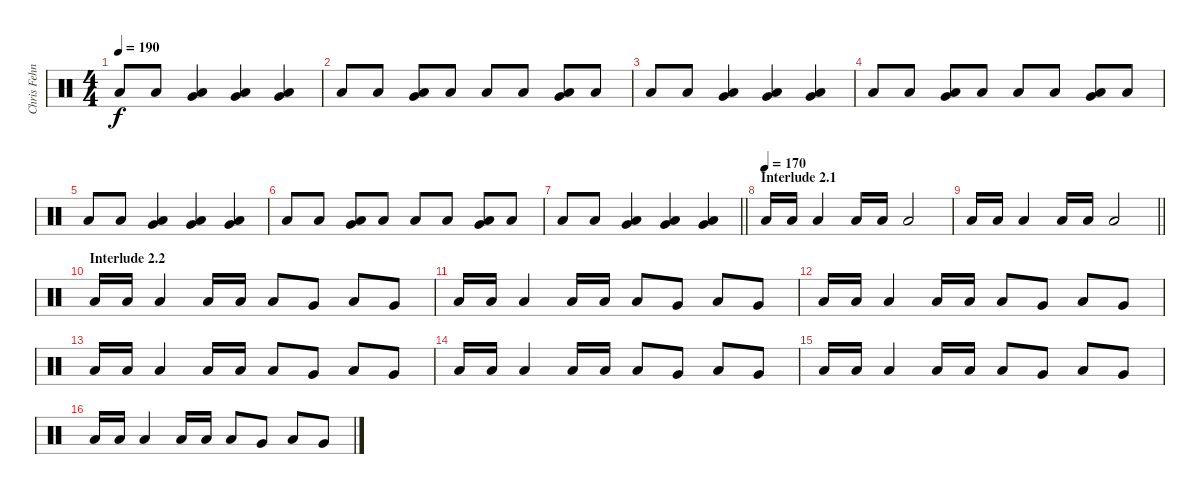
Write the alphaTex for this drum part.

\track ("Chris Fehn" "Chris Fehn") {instrument percussion}
\staff {score}
\articulation defaults
\ts (4 4)
\tempo 190
\clef neutral
\ks c "Low Floor Tom (hit)".8{dy f} "Low Floor Tom (hit)".8
("Very Low Tom (hit)" "Low Floor Tom (hit)").4 ("Very Low Tom (hit)" "Low Floor Tom (hit)").4 ("Very Low Tom (hit)" "Low Floor Tom (hit)").4 |
"Low Floor Tom (hit)".8 "Low Floor Tom (hit)".8 ("Very Low Tom (hit)" "Low Floor Tom (hit)").8 "Low Floor Tom (hit)".8 "Low Floor Tom (hit)".8 "Low Floor Tom (hit)".8 ("Very Low Tom (hit)" "Low Floor Tom (hit)").8 "Low Floor Tom (hit)".8 |
"Low Floor Tom (hit)".8 "Low Floor Tom (hit)".8 ("Very Low Tom (hit)" "Low Floor Tom (hit)").4 ("Very Low Tom (hit)" "Low Floor Tom (hit)").4 ("Very Low Tom (hit)" "Low Floor Tom (hit)").4 |
"Low Floor Tom (hit)".8 "Low Floor Tom (hit)".8 ("Very Low Tom (hit)" "Low Floor Tom (hit)").8 "Low Floor Tom (hit)".8 "Low Floor Tom (hit)".8 "Low Floor Tom (hit)".8 ("Very Low Tom (hit)" "Low Floor Tom (hit)").8 "Low Floor Tom (hit)".8 |
"Low Floor Tom (hit)".8 "Low Floor Tom (hit)".8 ("Very Low Tom (hit)" "Low Floor Tom (hit)").4 ("Very Low Tom (hit)" "Low Floor Tom (hit)").4 ("Very Low Tom (hit)" "Low Floor Tom (hit)").4 |
"Low Floor Tom (hit)".8 "Low Floor Tom (hit)".8 ("Very Low Tom (hit)" "Low Floor Tom (hit)").8 "Low Floor Tom (hit)".8 "Low Floor Tom (hit)".8 "Low Floor Tom (hit)".8 ("Very Low Tom (hit)" "Low Floor Tom (hit)").8 "Low Floor Tom (hit)".8 |
\barLineRight lightlight "Low Floor Tom (hit)".8 "Low Floor Tom (hit)".8
("Very Low Tom (hit)" "Low Floor Tom (hit)").4 ("Very Low Tom (hit)" "Low Floor Tom (hit)").4 ("Very Low Tom (hit)" "Low Floor Tom (hit)").4 |
\section ("" "Interlude 2.1")
\tempo (170)
"Low Floor Tom (hit)".16 "Low Floor Tom (hit)".16 "Low Floor Tom (hit)".4 "Low Floor Tom (hit)".16 "Low Floor Tom (hit)".16 "Low Floor Tom (hit)".2 |
\barLineRight lightlight "Low Floor Tom (hit)".16 "Low Floor Tom (hit)".16 "Low Floor Tom (hit)".4 "Low Floor Tom (hit)".16 "Low Floor Tom (hit)".16 "Low Floor Tom (hit)".2
|
\section ("" "Interlude 2.2")
"Low Floor Tom (hit)".16 "Low Floor Tom (hit)".16 "Low Floor Tom (hit)".4 "Low Floor Tom (hit)".16 "Low Floor Tom (hit)".16 "Low Floor Tom (hit)".8 "Very Low Tom (hit)".8 "Low Floor Tom (hit)".8 "Very Low Tom (hit)".8 |
"Low Floor Tom (hit)".16 "Low Floor Tom (hit)".16 "Low Floor Tom (hit)".4 "Low Floor Tom (hit)".16 "Low Floor Tom (hit)".16 "Low Floor Tom (hit)".8 "Very Low Tom (hit)".8 "Low Floor Tom (hit)".8 "Very Low Tom (hit)".8 |
"Low Floor Tom (hit)".16 "Low Floor Tom (hit)".16 "Low Floor Tom (hit)".4 "Low Floor Tom (hit)".16 "Low Floor Tom (hit)".16 "Low Floor Tom (hit)".8 "Very Low Tom (hit)".8 "Low Floor Tom (hit)".8 "Very Low Tom (hit)".8 |
"Low Floor Tom (hit)".16 "Low Floor Tom (hit)".16 "Low Floor Tom (hit)".4 "Low Floor Tom (hit)".16 "Low Floor Tom (hit)".16 "Low Floor Tom (hit)".8 "Very Low Tom (hit)".8 "Low Floor Tom (hit)".8 "Very Low Tom (hit)".8 |
"Low Floor Tom (hit)".16 "Low Floor Tom (hit)".16 "Low Floor Tom (hit)".4 "Low Floor Tom (hit)".16 "Low Floor Tom (hit)".16 "Low Floor Tom (hit)".8 "Very Low Tom (hit)".8 "Low Floor Tom (hit)".8 "Very Low Tom (hit)".8 |
"Low Floor Tom (hit)".16 "Low Floor Tom (hit)".16 "Low Floor Tom (hit)".4 "Low Floor Tom (hit)".16 "Low Floor Tom (hit)".16 "Low Floor Tom (hit)".8 "Very Low Tom (hit)".8 "Low Floor Tom (hit)".8 "Very Low Tom (hit)".8 |
"Low Floor Tom (hit)".16 "Low Floor Tom (hit)".16 "Low Floor Tom (hit)".4 "Low Floor Tom (hit)".16 "Low Floor Tom (hit)".16 "Low Floor Tom (hit)".8 "Very Low Tom (hit)".8 "Low Floor Tom (hit)".8 "Very Low Tom (hit)".8
